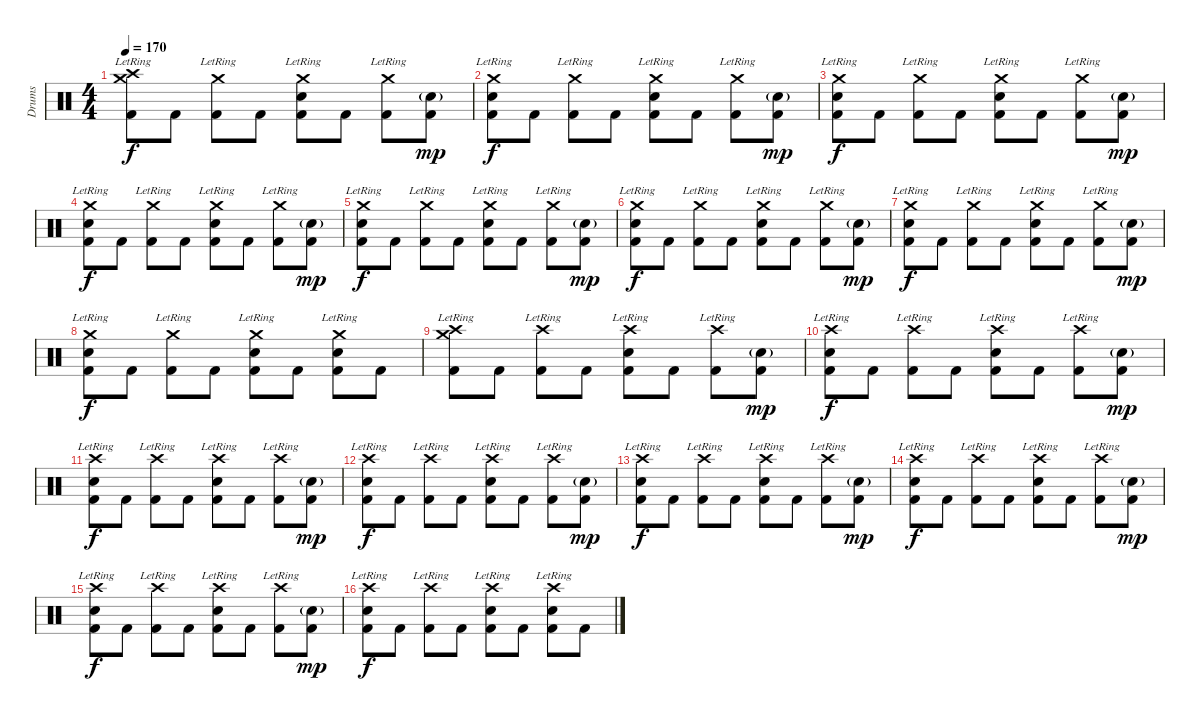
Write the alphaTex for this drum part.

\track ("Drums" "Drums") {instrument percussion}
\staff {score}
\articulation defaults
\ts (4 4)
\tempo 170
\clef neutral
\ks c
("Crash medium (hit)"{lr} "Crash high (hit)"{lr} "Kick (hit) 2").8{dy f} "Kick (hit) 2".8 ("Crash medium (hit)"{lr} "Kick (hit) 2").8 "Kick (hit) 2".8 ("Crash medium (hit)"{lr} "Electric Snare (hit)" "Kick (hit) 2").8 "Kick (hit) 2".8 ("Crash medium (hit)"{lr} "Kick (hit) 2").8 ("Electric Snare (hit)"{g} "Kick (hit) 2").8{dy mp} |
("Crash medium (hit)"{lr} "Electric Snare (hit)" "Kick (hit) 2").8{dy f} "Kick (hit) 2".8 ("Crash medium (hit)"{lr} "Kick (hit) 2").8 "Kick (hit) 2".8 ("Crash medium (hit)"{lr} "Electric Snare (hit)" "Kick (hit) 2").8 "Kick (hit) 2".8 ("Crash medium (hit)"{lr} "Kick (hit) 2").8 ("Electric Snare (hit)"{g} "Kick (hit) 2").8{dy mp} |
("Crash medium (hit)"{lr} "Electric Snare (hit)" "Kick (hit) 2").8{dy f} "Kick (hit) 2".8 ("Crash medium (hit)"{lr} "Kick (hit) 2").8 "Kick (hit) 2".8 ("Crash medium (hit)"{lr} "Electric Snare (hit)" "Kick (hit) 2").8 "Kick (hit) 2".8 ("Crash medium (hit)"{lr} "Kick (hit) 2").8 ("Electric Snare (hit)"{g} "Kick (hit) 2").8{dy mp} |
("Crash medium (hit)"{lr} "Electric Snare (hit)" "Kick (hit) 2").8{dy f} "Kick (hit) 2".8 ("Crash medium (hit)"{lr} "Kick (hit) 2").8 "Kick (hit) 2".8 ("Crash medium (hit)"{lr} "Electric Snare (hit)" "Kick (hit) 2").8 "Kick (hit) 2".8 ("Crash medium (hit)"{lr} "Kick (hit) 2").8 ("Electric Snare (hit)"{g} "Kick (hit) 2").8{dy mp} |
("Crash medium (hit)"{lr} "Electric Snare (hit)" "Kick (hit) 2").8{dy f} "Kick (hit) 2".8 ("Crash medium (hit)"{lr} "Kick (hit) 2").8 "Kick (hit) 2".8 ("Crash medium (hit)"{lr} "Electric Snare (hit)" "Kick (hit) 2").8 "Kick (hit) 2".8 ("Crash medium (hit)"{lr} "Kick (hit) 2").8 ("Electric Snare (hit)"{g} "Kick (hit) 2").8{dy mp} |
("Crash medium (hit)"{lr} "Electric Snare (hit)" "Kick (hit) 2").8{dy f} "Kick (hit) 2".8 ("Crash medium (hit)"{lr} "Kick (hit) 2").8 "Kick (hit) 2".8 ("Crash medium (hit)"{lr} "Electric Snare (hit)" "Kick (hit) 2").8 "Kick (hit) 2".8 ("Crash medium (hit)"{lr} "Kick (hit) 2").8 ("Electric Snare (hit)"{g} "Kick (hit) 2").8{dy mp} |
("Crash medium (hit)"{lr} "Electric Snare (hit)" "Kick (hit) 2").8{dy f} "Kick (hit) 2".8 ("Crash medium (hit)"{lr} "Kick (hit) 2").8 "Kick (hit) 2".8 ("Crash medium (hit)"{lr} "Electric Snare (hit)" "Kick (hit) 2").8 "Kick (hit) 2".8 ("Crash medium (hit)"{lr} "Kick (hit) 2").8 ("Electric Snare (hit)"{g} "Kick (hit) 2").8{dy mp} |
("Crash medium (hit)"{lr} "Electric Snare (hit)" "Kick (hit) 2").8{dy f} "Kick (hit) 2".8 ("Crash medium (hit)"{lr} "Kick (hit) 2").8 "Kick (hit) 2".8 ("Crash medium (hit)"{lr} "Electric Snare (hit)" "Kick (hit) 2").8 "Kick (hit) 2".8 ("Crash medium (hit)"{lr} "Electric Snare (hit)" "Kick (hit) 2").8 "Kick (hit) 2".8 |
("Crash medium (hit)"{lr} "Crash high (hit)"{lr} "Kick (hit) 2").8 "Kick (hit) 2".8 ("Crash high (hit)"{lr} "Kick (hit) 2").8 "Kick (hit) 2".8 ("Crash high (hit)"{lr} "Electric Snare (hit)" "Kick (hit) 2").8 "Kick (hit) 2".8 ("Crash high (hit)"{lr} "Kick (hit) 2").8 ("Electric Snare (hit)"{g} "Kick (hit) 2").8{dy mp} |
("Crash high (hit)"{lr} "Electric Snare (hit)" "Kick (hit) 2").8{dy f} "Kick (hit) 2".8 ("Crash high (hit)"{lr} "Kick (hit) 2").8 "Kick (hit) 2".8 ("Crash high (hit)"{lr} "Electric Snare (hit)" "Kick (hit) 2").8 "Kick (hit) 2".8 ("Crash high (hit)"{lr} "Kick (hit) 2").8 ("Electric Snare (hit)"{g} "Kick (hit) 2").8{dy mp} |
("Crash high (hit)"{lr} "Electric Snare (hit)" "Kick (hit) 2").8{dy f} "Kick (hit) 2".8 ("Crash high (hit)"{lr} "Kick (hit) 2").8 "Kick (hit) 2".8 ("Crash high (hit)"{lr} "Electric Snare (hit)" "Kick (hit) 2").8 "Kick (hit) 2".8 ("Crash high (hit)"{lr} "Kick (hit) 2").8 ("Electric Snare (hit)"{g} "Kick (hit) 2").8{dy mp} |
("Crash high (hit)"{lr} "Electric Snare (hit)" "Kick (hit) 2").8{dy f} "Kick (hit) 2".8 ("Crash high (hit)"{lr} "Kick (hit) 2").8 "Kick (hit) 2".8 ("Crash high (hit)"{lr} "Electric Snare (hit)" "Kick (hit) 2").8 "Kick (hit) 2".8 ("Crash high (hit)"{lr} "Kick (hit) 2").8 ("Electric Snare (hit)"{g} "Kick (hit) 2").8{dy mp} |
("Crash high (hit)"{lr} "Electric Snare (hit)" "Kick (hit) 2").8{dy f} "Kick (hit) 2".8 ("Crash high (hit)"{lr} "Kick (hit) 2").8 "Kick (hit) 2".8 ("Crash high (hit)"{lr} "Electric Snare (hit)" "Kick (hit) 2").8 "Kick (hit) 2".8 ("Crash high (hit)"{lr} "Kick (hit) 2").8 ("Electric Snare (hit)"{g} "Kick (hit) 2").8{dy mp} |
("Crash high (hit)"{lr} "Electric Snare (hit)" "Kick (hit) 2").8{dy f} "Kick (hit) 2".8 ("Crash high (hit)"{lr} "Kick (hit) 2").8 "Kick (hit) 2".8 ("Crash high (hit)"{lr} "Electric Snare (hit)" "Kick (hit) 2").8 "Kick (hit) 2".8 ("Crash high (hit)"{lr} "Kick (hit) 2").8 ("Electric Snare (hit)"{g} "Kick (hit) 2").8{dy mp} |
("Crash high (hit)"{lr} "Electric Snare (hit)" "Kick (hit) 2").8{dy f} "Kick (hit) 2".8 ("Crash high (hit)"{lr} "Kick (hit) 2").8 "Kick (hit) 2".8 ("Crash high (hit)"{lr} "Electric Snare (hit)" "Kick (hit) 2").8 "Kick (hit) 2".8 ("Crash high (hit)"{lr} "Kick (hit) 2").8 ("Electric Snare (hit)"{g} "Kick (hit) 2").8{dy mp} |
("Crash high (hit)"{lr} "Electric Snare (hit)" "Kick (hit) 2").8{dy f} "Kick (hit) 2".8 ("Crash high (hit)"{lr} "Kick (hit) 2").8 "Kick (hit) 2".8 ("Crash high (hit)"{lr} "Electric Snare (hit)" "Kick (hit) 2").8 "Kick (hit) 2".8 ("Crash high (hit)"{lr} "Electric Snare (hit)" "Kick (hit) 2").8 "Kick (hit) 2".8
